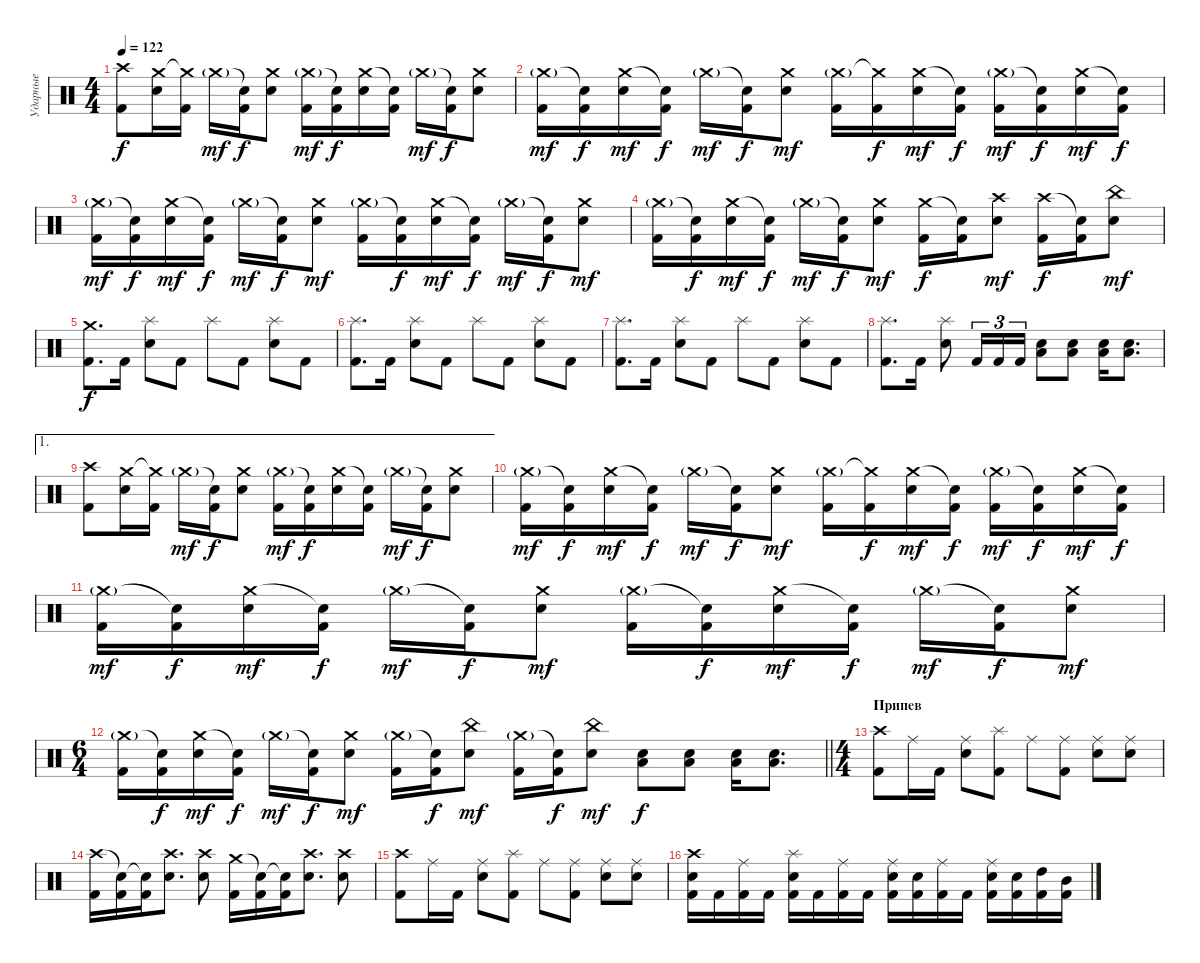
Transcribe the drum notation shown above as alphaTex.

\track ("Ударные" "Ударные") {instrument percussion}
\staff {score}
\articulation defaults
\ts (4 4)
\tempo 122
\clef neutral
\ks c
("Crash high (hit)" "Kick (hit) 2").8{dy f} ("Crash medium (hit)" "Electric Snare (hit)").16 ("Crash medium (hit)"{t} "Kick (hit) 2").16 "Crash medium (hit)"{g}.16{dy mf} ("Snare (hit)"{t} "Kick (hit) 2").16{dy f} ("Crash medium (hit)" "Electric Snare (hit)").8 ("Crash medium (hit)"{g} "Kick (hit) 2").16{dy mf} ("Snare (hit)"{t} "Kick (hit) 2").16{dy f} ("Crash medium (hit)" "Electric Snare (hit)").16 ("Snare (hit)"{t} "Kick (hit) 2").16 "Crash medium (hit)"{g}.16{dy mf} ("Snare (hit)"{t} "Kick (hit) 2").16{dy f} ("Crash medium (hit)" "Electric Snare (hit)").8 |
("Crash medium (hit)"{g} "Kick (hit) 2").16{dy mf} ("Snare (hit)"{t} "Kick (hit) 2").16{dy f} ("Crash medium (hit)" "Electric Snare (hit)").16{dy mf} ("Snare (hit)"{t} "Kick (hit) 2").16{dy f} "Crash medium (hit)"{g}.16{dy mf} ("Snare (hit)"{t} "Kick (hit) 2").16{dy f} ("Crash medium (hit)" "Electric Snare (hit)").8{dy mf} ("Crash medium (hit)"{g} "Kick (hit) 2").16 ("Crash medium (hit)"{t} "Kick (hit) 2").16{dy f} ("Crash medium (hit)" "Electric Snare (hit)").16{dy mf} ("Snare (hit)"{t} "Kick (hit) 2").16{dy f} ("Crash medium (hit)"{g} "Kick (hit) 2").16{dy mf} ("Snare (hit)"{t} "Kick (hit) 2").16{dy f} ("Crash medium (hit)" "Electric Snare (hit)").16{dy mf} ("Snare (hit)"{t} "Kick (hit) 2").16{dy f} |
("Crash medium (hit)"{g} "Kick (hit) 2").16{dy mf} ("Snare (hit)"{t} "Kick (hit) 2").16{dy f} ("Crash medium (hit)" "Electric Snare (hit)").16{dy mf} ("Snare (hit)"{t} "Kick (hit) 2").16{dy f} "Crash medium (hit)"{g}.16{dy mf} ("Snare (hit)"{t} "Kick (hit) 2").16{dy f} ("Crash medium (hit)" "Electric Snare (hit)").8{dy mf} ("Crash medium (hit)"{g} "Kick (hit) 2").16 ("Snare (hit)"{t} "Kick (hit) 2").16{dy f} ("Crash medium (hit)" "Electric Snare (hit)").16{dy mf} ("Snare (hit)"{t} "Kick (hit) 2").16{dy f} "Crash medium (hit)"{g}.16{dy mf} ("Snare (hit)"{t} "Kick (hit) 2").16{dy f} ("Crash medium (hit)" "Electric Snare (hit)").8{dy mf} |
("Crash medium (hit)"{g} "Kick (hit) 2").16 ("Snare (hit)"{t} "Kick (hit) 2").16{dy f} ("Crash medium (hit)" "Electric Snare (hit)").16{dy mf} ("Snare (hit)"{t} "Kick (hit) 2").16{dy f} "Crash medium (hit)"{g}.16{dy mf} ("Snare (hit)"{t} "Kick (hit) 2").16{dy f} ("Crash medium (hit)" "Electric Snare (hit)").8{dy mf} ("Crash medium (hit)" "Kick (hit) 2").16{dy f} ("Snare (hit)"{t} "Kick (hit) 2").16 ("Crash high (hit)" "Electric Snare (hit)").8{dy mf} ("Crash high (hit)" "Kick (hit) 2").16{dy f} ("Snare (hit)"{t} "Kick (hit) 2").16 ("China (hit)" "Electric Snare (hit)").8{dy mf} |
("Crash medium (hit)" "Kick (hit) 2").8{d dy f} "Kick (hit) 2".16 ("Splash (hit)" "Electric Snare (hit)").8 "Kick (hit) 2".8 "Splash (hit)".8 "Kick (hit) 2".8 ("Splash (hit)" "Electric Snare (hit)").8 "Kick (hit) 2".8 |
("Splash (hit)" "Kick (hit) 2").8{d} "Kick (hit) 2".16 ("Splash (hit)" "Electric Snare (hit)").8 "Kick (hit) 2".8 "Splash (hit)".8 "Kick (hit) 2".8 ("Splash (hit)" "Electric Snare (hit)").8 "Kick (hit) 2".8 |
("Splash (hit)" "Kick (hit) 2").8{d} "Kick (hit) 2".16 ("Splash (hit)" "Electric Snare (hit)").8 "Kick (hit) 2".8 "Splash (hit)".8 "Kick (hit) 2".8 ("Splash (hit)" "Electric Snare (hit)").8 "Kick (hit) 2".8 |
("Splash (hit)" "Kick (hit) 2").8{d} "Kick (hit) 2".16 ("Splash (hit)" "Electric Snare (hit)").8 "Kick (hit) 2".16{tu (3 2)} "Kick (hit) 2".16{tu (3 2)} "Kick (hit) 2".16{tu (3 2)} ("Low Floor Tom (hit)" "Electric Snare (hit)").8 ("Low Floor Tom (hit)" "Electric Snare (hit)").8 ("Low Floor Tom (hit)" "Electric Snare (hit)").16 ("Low Floor Tom (hit)" "Electric Snare (hit)").8{d} |
\ae 1
("Crash high (hit)" "Kick (hit) 2").8 ("Crash medium (hit)" "Electric Snare (hit)").16 ("Crash medium (hit)"{t} "Kick (hit) 2").16 "Crash medium (hit)"{g}.16{dy mf} ("Snare (hit)"{t} "Kick (hit) 2").16{dy f} ("Crash medium (hit)" "Electric Snare (hit)").8 ("Crash medium (hit)"{g} "Kick (hit) 2").16{dy mf} ("Snare (hit)"{t} "Kick (hit) 2").16{dy f} ("Crash medium (hit)" "Electric Snare (hit)").16 ("Snare (hit)"{t} "Kick (hit) 2").16 "Crash medium (hit)"{g}.16{dy mf} ("Snare (hit)"{t} "Kick (hit) 2").16{dy f} ("Crash medium (hit)" "Electric Snare (hit)").8 |
("Crash medium (hit)"{g} "Kick (hit) 2").16{dy mf} ("Snare (hit)"{t} "Kick (hit) 2").16{dy f} ("Crash medium (hit)" "Electric Snare (hit)").16{dy mf} ("Snare (hit)"{t} "Kick (hit) 2").16{dy f} "Crash medium (hit)"{g}.16{dy mf} ("Snare (hit)"{t} "Kick (hit) 2").16{dy f} ("Crash medium (hit)" "Electric Snare (hit)").8{dy mf} ("Crash medium (hit)"{g} "Kick (hit) 2").16 ("Crash medium (hit)"{t} "Kick (hit) 2").16{dy f} ("Crash medium (hit)" "Electric Snare (hit)").16{dy mf} ("Snare (hit)"{t} "Kick (hit) 2").16{dy f} ("Crash medium (hit)"{g} "Kick (hit) 2").16{dy mf} ("Snare (hit)"{t} "Kick (hit) 2").16{dy f} ("Crash medium (hit)" "Electric Snare (hit)").16{dy mf} ("Snare (hit)"{t} "Kick (hit) 2").16{dy f} |
("Crash medium (hit)"{g} "Kick (hit) 2").16{dy mf} ("Snare (hit)"{t} "Kick (hit) 2").16{dy f} ("Crash medium (hit)" "Electric Snare (hit)").16{dy mf} ("Snare (hit)"{t} "Kick (hit) 2").16{dy f} "Crash medium (hit)"{g}.16{dy mf} ("Snare (hit)"{t} "Kick (hit) 2").16{dy f} ("Crash medium (hit)" "Electric Snare (hit)").8{dy mf} ("Crash medium (hit)"{g} "Kick (hit) 2").16 ("Snare (hit)"{t} "Kick (hit) 2").16{dy f} ("Crash medium (hit)" "Electric Snare (hit)").16{dy mf} ("Snare (hit)"{t} "Kick (hit) 2").16{dy f} "Crash medium (hit)"{g}.16{dy mf} ("Snare (hit)"{t} "Kick (hit) 2").16{dy f} ("Crash medium (hit)" "Electric Snare (hit)").8{dy mf} |
\ts (6 4)
\barLineRight lightlight
("Crash medium (hit)"{g} "Kick (hit) 2").16 ("Snare (hit)"{t} "Kick (hit) 2").16{dy f} ("Crash medium (hit)" "Electric Snare (hit)").16{dy mf} ("Snare (hit)"{t} "Kick (hit) 2").16{dy f} "Crash medium (hit)"{g}.16{dy mf} ("Snare (hit)"{t} "Kick (hit) 2").16{dy f} ("Crash medium (hit)" "Electric Snare (hit)").8{dy mf} ("Crash medium (hit)"{g} "Kick (hit) 2").16 ("Snare (hit)"{t} "Kick (hit) 2").16{dy f} ("China (hit)" "Electric Snare (hit)").8{dy mf} ("Crash medium (hit)"{g} "Kick (hit) 2").16 ("Snare (hit)"{t} "Kick (hit) 2").16{dy f} ("China (hit)" "Electric Snare (hit)").8{dy mf} ("Low Floor Tom (hit)" "Electric Snare (hit)").8{dy f} ("Low Floor Tom (hit)" "Electric Snare (hit)").8 ("Low Floor Tom (hit)" "Electric Snare (hit)").16 ("Low Floor Tom (hit)" "Electric Snare (hit)").8{d} |
\ts (4 4)
\section ("" "Припев")
("Crash high (hit)" "Kick (hit) 2").8 "Ride (middle)".16 "Kick (hit) 2".16 ("Ride (middle)" "Electric Snare (hit)").8 ("Splash (hit)" "Kick (hit) 2").8 "Ride (middle)".8 ("Ride (middle)" "Kick (hit) 2").8 ("Ride (middle)" "Electric Snare (hit)").8 ("Ride (middle)" "Electric Snare (hit)").8 |
("Crash high (hit)" "Kick (hit) 2").16 ("Snare (hit)"{t} "Kick (hit) 2").16 ("Snare (hit)"{t} "Kick (hit) 2").16 ("Crash high (hit)" "Electric Snare (hit)").8{d} ("Crash high (hit)" "Electric Snare (hit)").8 ("Crash medium (hit)" "Kick (hit) 2").16 ("Snare (hit)"{t} "Kick (hit) 2").16 ("Snare (hit)"{t} "Kick (hit) 2").16 ("Crash high (hit)" "Electric Snare (hit)").8{d} ("Crash high (hit)" "Electric Snare (hit)").8 |
("Crash high (hit)" "Kick (hit) 2").8 "Ride (middle)".16 "Kick (hit) 2".16 ("Ride (middle)" "Electric Snare (hit)").8 ("Splash (hit)" "Kick (hit) 2").8 "Ride (middle)".8 ("Ride (middle)" "Kick (hit) 2").8 ("Ride (middle)" "Electric Snare (hit)").8 ("Ride (middle)" "Electric Snare (hit)").8 |
("Crash high (hit)" "Electric Snare (hit)" "Kick (hit) 2").16 "Kick (hit) 2".16 ("Ride (middle)" "Kick (hit) 2").16 "Kick (hit) 2".16 ("Splash (hit)" "Electric Snare (hit)" "Kick (hit) 2").16 "Kick (hit) 2".16 ("Ride (middle)" "Kick (hit) 2").16 "Kick (hit) 2".16 ("Ride (middle)" "Electric Snare (hit)" "Kick (hit) 2").16 ("Electric Snare (hit)" "Kick (hit) 2").16 ("Ride (middle)" "Kick (hit) 2").16 "Kick (hit) 2".16 ("Ride (middle)" "Electric Snare (hit)" "Kick (hit) 2").16 ("Electric Snare (hit)" "Kick (hit) 2").16 ("High Tom (hit)" "Kick (hit) 2").16 ("Mid Tom (hit)" "Kick (hit) 2").16
